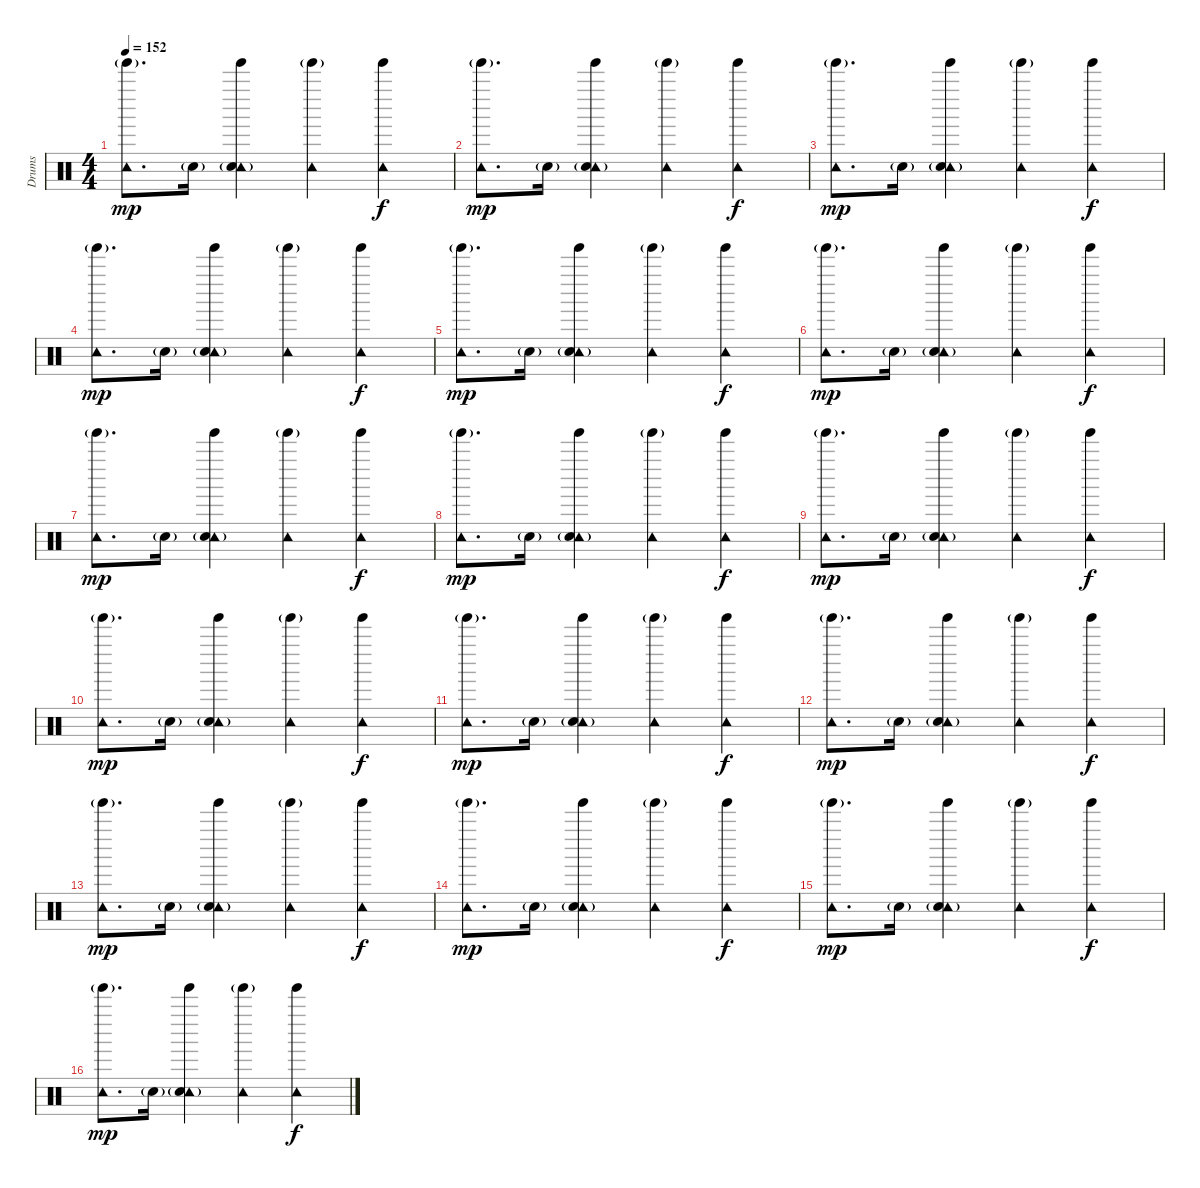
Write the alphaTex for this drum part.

\track ("Drums" "Drums") {instrument percussion}
\staff {score}
\articulation defaults
\ts (4 4)
\tempo 152
\clef neutral
\ks c
("Tambourine (hit)" "Tinkle Bell (hit)"{g}).8{d dy mp} "Snare (hit) 2"{g}.16 ("Tambourine (hit)" "Tinkle Bell (hit)" "Snare (hit) 2"{g}).4 ("Tambourine (hit)" "Tinkle Bell (hit)"{g}).4 ("Tambourine (hit)" "Tinkle Bell (hit)").4{dy f} |
("Tambourine (hit)" "Tinkle Bell (hit)"{g}).8{d dy mp} "Snare (hit) 2"{g}.16 ("Tambourine (hit)" "Tinkle Bell (hit)" "Snare (hit) 2"{g}).4 ("Tambourine (hit)" "Tinkle Bell (hit)"{g}).4 ("Tambourine (hit)" "Tinkle Bell (hit)").4{dy f} |
("Tambourine (hit)" "Tinkle Bell (hit)"{g}).8{d dy mp} "Snare (hit) 2"{g}.16 ("Tambourine (hit)" "Tinkle Bell (hit)" "Snare (hit) 2"{g}).4 ("Tambourine (hit)" "Tinkle Bell (hit)"{g}).4 ("Tambourine (hit)" "Tinkle Bell (hit)").4{dy f} |
("Tambourine (hit)" "Tinkle Bell (hit)"{g}).8{d dy mp} "Snare (hit) 2"{g}.16 ("Tambourine (hit)" "Tinkle Bell (hit)" "Snare (hit) 2"{g}).4 ("Tambourine (hit)" "Tinkle Bell (hit)"{g}).4 ("Tambourine (hit)" "Tinkle Bell (hit)").4{dy f} |
("Tambourine (hit)" "Tinkle Bell (hit)"{g}).8{d dy mp} "Snare (hit) 2"{g}.16 ("Tambourine (hit)" "Tinkle Bell (hit)" "Snare (hit) 2"{g}).4 ("Tambourine (hit)" "Tinkle Bell (hit)"{g}).4 ("Tambourine (hit)" "Tinkle Bell (hit)").4{dy f} |
("Tambourine (hit)" "Tinkle Bell (hit)"{g}).8{d dy mp} "Snare (hit) 2"{g}.16 ("Tambourine (hit)" "Tinkle Bell (hit)" "Snare (hit) 2"{g}).4 ("Tambourine (hit)" "Tinkle Bell (hit)"{g}).4 ("Tambourine (hit)" "Tinkle Bell (hit)").4{dy f} |
("Tambourine (hit)" "Tinkle Bell (hit)"{g}).8{d dy mp} "Snare (hit) 2"{g}.16 ("Tambourine (hit)" "Tinkle Bell (hit)" "Snare (hit) 2"{g}).4 ("Tambourine (hit)" "Tinkle Bell (hit)"{g}).4 ("Tambourine (hit)" "Tinkle Bell (hit)").4{dy f} |
("Tambourine (hit)" "Tinkle Bell (hit)"{g}).8{d dy mp} "Snare (hit) 2"{g}.16 ("Tambourine (hit)" "Tinkle Bell (hit)" "Snare (hit) 2"{g}).4 ("Tambourine (hit)" "Tinkle Bell (hit)"{g}).4 ("Tambourine (hit)" "Tinkle Bell (hit)").4{dy f} |
("Tambourine (hit)" "Tinkle Bell (hit)"{g}).8{d dy mp} "Snare (hit) 2"{g}.16 ("Tambourine (hit)" "Tinkle Bell (hit)" "Snare (hit) 2"{g}).4 ("Tambourine (hit)" "Tinkle Bell (hit)"{g}).4 ("Tambourine (hit)" "Tinkle Bell (hit)").4{dy f} |
("Tambourine (hit)" "Tinkle Bell (hit)"{g}).8{d dy mp} "Snare (hit) 2"{g}.16 ("Tambourine (hit)" "Tinkle Bell (hit)" "Snare (hit) 2"{g}).4 ("Tambourine (hit)" "Tinkle Bell (hit)"{g}).4 ("Tambourine (hit)" "Tinkle Bell (hit)").4{dy f} |
("Tambourine (hit)" "Tinkle Bell (hit)"{g}).8{d dy mp} "Snare (hit) 2"{g}.16 ("Tambourine (hit)" "Tinkle Bell (hit)" "Snare (hit) 2"{g}).4 ("Tambourine (hit)" "Tinkle Bell (hit)"{g}).4 ("Tambourine (hit)" "Tinkle Bell (hit)").4{dy f} |
("Tambourine (hit)" "Tinkle Bell (hit)"{g}).8{d dy mp} "Snare (hit) 2"{g}.16 ("Tambourine (hit)" "Tinkle Bell (hit)" "Snare (hit) 2"{g}).4 ("Tambourine (hit)" "Tinkle Bell (hit)"{g}).4 ("Tambourine (hit)" "Tinkle Bell (hit)").4{dy f} |
("Tambourine (hit)" "Tinkle Bell (hit)"{g}).8{d dy mp} "Snare (hit) 2"{g}.16 ("Tambourine (hit)" "Tinkle Bell (hit)" "Snare (hit) 2"{g}).4 ("Tambourine (hit)" "Tinkle Bell (hit)"{g}).4 ("Tambourine (hit)" "Tinkle Bell (hit)").4{dy f} |
("Tambourine (hit)" "Tinkle Bell (hit)"{g}).8{d dy mp} "Snare (hit) 2"{g}.16 ("Tambourine (hit)" "Tinkle Bell (hit)" "Snare (hit) 2"{g}).4 ("Tambourine (hit)" "Tinkle Bell (hit)"{g}).4 ("Tambourine (hit)" "Tinkle Bell (hit)").4{dy f} |
("Tambourine (hit)" "Tinkle Bell (hit)"{g}).8{d dy mp} "Snare (hit) 2"{g}.16 ("Tambourine (hit)" "Tinkle Bell (hit)" "Snare (hit) 2"{g}).4 ("Tambourine (hit)" "Tinkle Bell (hit)"{g}).4 ("Tambourine (hit)" "Tinkle Bell (hit)").4{dy f} |
("Tambourine (hit)" "Tinkle Bell (hit)"{g}).8{d dy mp} "Snare (hit) 2"{g}.16 ("Tambourine (hit)" "Tinkle Bell (hit)" "Snare (hit) 2"{g}).4 ("Tambourine (hit)" "Tinkle Bell (hit)"{g}).4 ("Tambourine (hit)" "Tinkle Bell (hit)").4{dy f}
